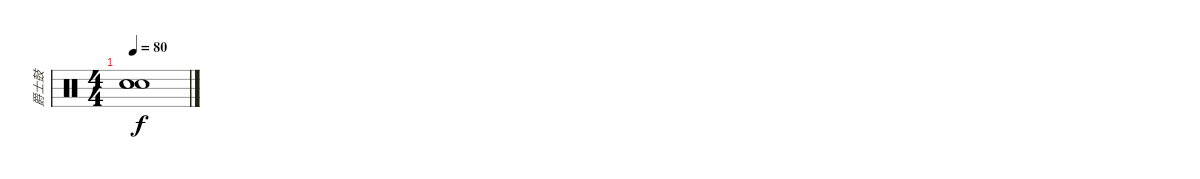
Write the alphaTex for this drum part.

\track ("爵士鼓" "爵士鼓") {instrument percussion}
\staff {score}
\articulation defaults
\ts (4 4)
\tempo 80
\clef neutral
\ks c
("Snare (hit)"{t} "Snare (hit)"{t} "Snare (hit)"{t}).1{dy f}
